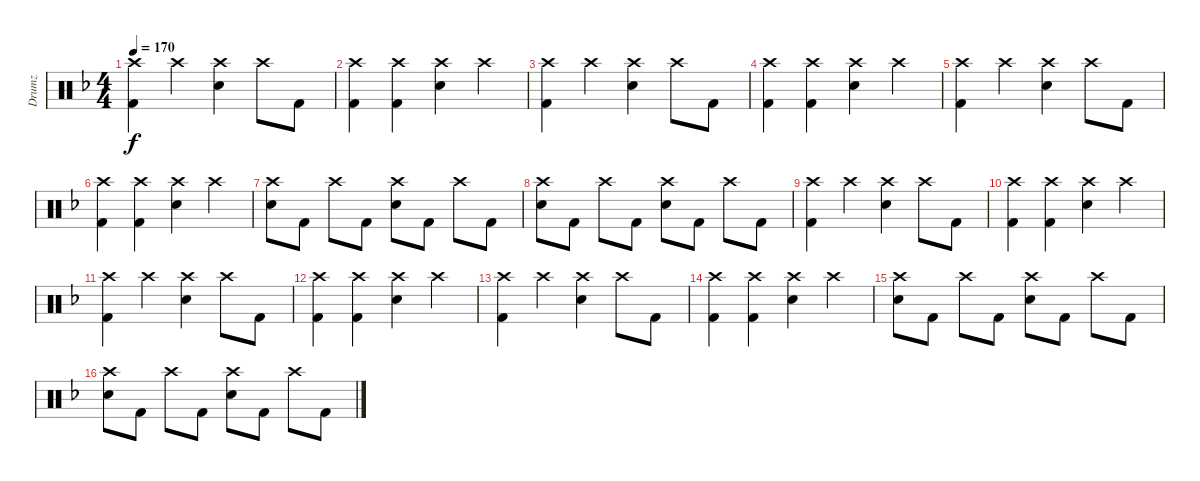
\track ("Drumz" "Drumz") {instrument percussion}
\staff {score}
\articulation defaults
\ts (4 4)
\tempo 170
\clef neutral
\ks dminor
("Crash high (hit)" "Kick (hit) 2").4{dy f} "Crash high (hit)".4 ("Crash high (hit)" "Snare (hit) 2").4 "Crash high (hit)".8 "Kick (hit) 2".8 |
("Crash high (hit)" "Kick (hit) 2").4 ("Crash high (hit)" "Kick (hit) 2").4 ("Crash high (hit)" "Snare (hit) 2").4 "Crash high (hit)".4 |
("Crash high (hit)" "Kick (hit) 2").4 "Crash high (hit)".4 ("Crash high (hit)" "Snare (hit) 2").4 "Crash high (hit)".8 "Kick (hit) 2".8 |
("Crash high (hit)" "Kick (hit) 2").4 ("Crash high (hit)" "Kick (hit) 2").4 ("Crash high (hit)" "Snare (hit) 2").4 "Crash high (hit)".4 |
("Crash high (hit)" "Kick (hit) 2").4 "Crash high (hit)".4 ("Crash high (hit)" "Snare (hit) 2").4 "Crash high (hit)".8 "Kick (hit) 2".8 |
("Crash high (hit)" "Kick (hit) 2").4 ("Crash high (hit)" "Kick (hit) 2").4 ("Crash high (hit)" "Snare (hit) 2").4 "Crash high (hit)".4 |
("Crash high (hit)" "Snare (hit) 2").8 "Kick (hit) 2".8 "Crash high (hit)".8 "Kick (hit) 2".8 ("Crash high (hit)" "Snare (hit) 2").8 "Kick (hit) 2".8 "Crash high (hit)".8 "Kick (hit) 2".8 |
("Crash high (hit)" "Snare (hit) 2").8 "Kick (hit) 2".8 "Crash high (hit)".8 "Kick (hit) 2".8 ("Crash high (hit)" "Snare (hit) 2").8 "Kick (hit) 2".8 "Crash high (hit)".8 "Kick (hit) 2".8 |
("Crash high (hit)" "Kick (hit) 2").4 "Crash high (hit)".4 ("Crash high (hit)" "Snare (hit) 2").4 "Crash high (hit)".8 "Kick (hit) 2".8 |
("Crash high (hit)" "Kick (hit) 2").4 ("Crash high (hit)" "Kick (hit) 2").4 ("Crash high (hit)" "Snare (hit) 2").4 "Crash high (hit)".4 |
("Crash high (hit)" "Kick (hit) 2").4 "Crash high (hit)".4 ("Crash high (hit)" "Snare (hit) 2").4 "Crash high (hit)".8 "Kick (hit) 2".8 |
("Crash high (hit)" "Kick (hit) 2").4 ("Crash high (hit)" "Kick (hit) 2").4 ("Crash high (hit)" "Snare (hit) 2").4 "Crash high (hit)".4 |
("Crash high (hit)" "Kick (hit) 2").4 "Crash high (hit)".4 ("Crash high (hit)" "Snare (hit) 2").4 "Crash high (hit)".8 "Kick (hit) 2".8 |
("Crash high (hit)" "Kick (hit) 2").4 ("Crash high (hit)" "Kick (hit) 2").4 ("Crash high (hit)" "Snare (hit) 2").4 "Crash high (hit)".4 |
("Crash high (hit)" "Snare (hit) 2").8 "Kick (hit) 2".8 "Crash high (hit)".8 "Kick (hit) 2".8 ("Crash high (hit)" "Snare (hit) 2").8 "Kick (hit) 2".8 "Crash high (hit)".8 "Kick (hit) 2".8 |
("Crash high (hit)" "Snare (hit) 2").8 "Kick (hit) 2".8 "Crash high (hit)".8 "Kick (hit) 2".8 ("Crash high (hit)" "Snare (hit) 2").8 "Kick (hit) 2".8 "Crash high (hit)".8 "Kick (hit) 2".8
